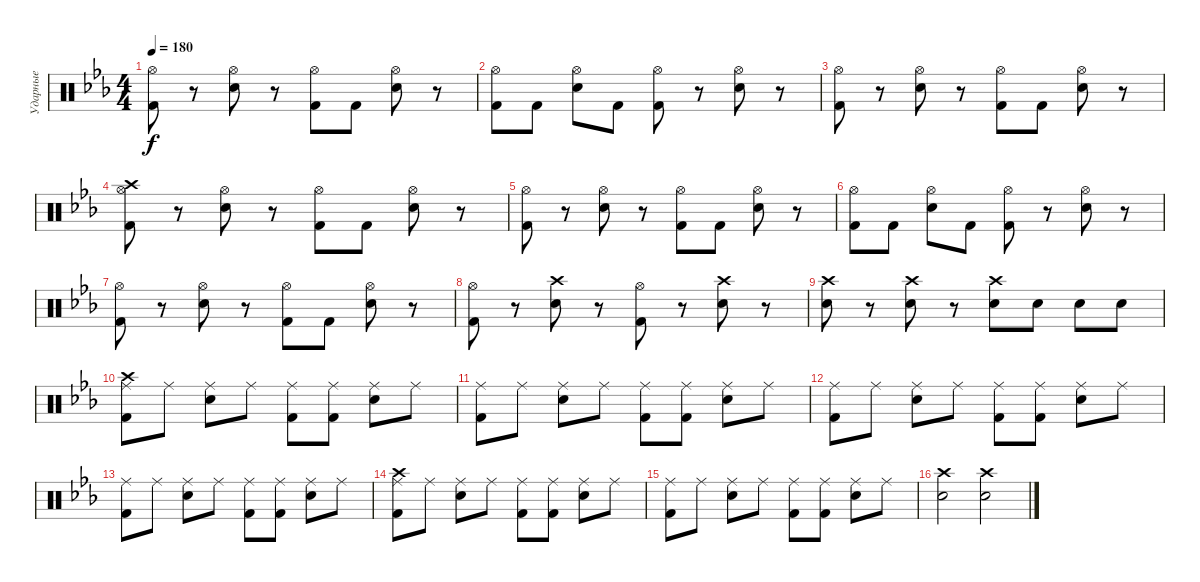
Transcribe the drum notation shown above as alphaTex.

\track ("Ударные" "Ударные") {instrument percussion}
\staff {score}
\articulation defaults
\ts (4 4)
\tempo 180
\clef neutral
\ks eb
("Hi-Hat (open)" "Kick (hit) 2").8{dy f} r.8 ("Hi-Hat (open)" "Electric Snare (hit)").8 r.8 ("Hi-Hat (open)" "Kick (hit) 2").8 "Kick (hit) 2".8 ("Hi-Hat (open)" "Electric Snare (hit)").8 r.8 |
("Hi-Hat (open)" "Kick (hit) 2").8 "Kick (hit) 2".8 ("Hi-Hat (open)" "Electric Snare (hit)").8 "Kick (hit) 2".8 ("Hi-Hat (open)" "Kick (hit) 2").8 r.8 ("Hi-Hat (open)" "Electric Snare (hit)").8 r.8 |
("Hi-Hat (open)" "Kick (hit) 2").8 r.8 ("Hi-Hat (open)" "Electric Snare (hit)").8 r.8 ("Hi-Hat (open)" "Kick (hit) 2").8 "Kick (hit) 2".8 ("Hi-Hat (open)" "Electric Snare (hit)").8 r.8 |
("Hi-Hat (open)" "Kick (hit) 2" "Crash high (hit)").8 r.8 ("Hi-Hat (open)" "Electric Snare (hit)").8 r.8 ("Hi-Hat (open)" "Kick (hit) 2").8 "Kick (hit) 2".8 ("Hi-Hat (open)" "Electric Snare (hit)").8 r.8 |
("Hi-Hat (open)" "Kick (hit) 2").8 r.8 ("Hi-Hat (open)" "Electric Snare (hit)").8 r.8 ("Hi-Hat (open)" "Kick (hit) 2").8 "Kick (hit) 2".8 ("Hi-Hat (open)" "Electric Snare (hit)").8 r.8 |
("Hi-Hat (open)" "Kick (hit) 2").8 "Kick (hit) 2".8 ("Hi-Hat (open)" "Electric Snare (hit)").8 "Kick (hit) 2".8 ("Hi-Hat (open)" "Kick (hit) 2").8 r.8 ("Hi-Hat (open)" "Electric Snare (hit)").8 r.8 |
("Hi-Hat (open)" "Kick (hit) 2").8 r.8 ("Hi-Hat (open)" "Electric Snare (hit)").8 r.8 ("Hi-Hat (open)" "Kick (hit) 2").8 "Kick (hit) 2".8 ("Hi-Hat (open)" "Electric Snare (hit)").8 r.8 |
("Hi-Hat (open)" "Kick (hit) 2").8 r.8 ("Electric Snare (hit)" "Crash high (hit)").8 r.8 ("Hi-Hat (open)" "Kick (hit) 2").8 r.8 ("Electric Snare (hit)" "Crash high (hit)").8 r.8 |
("Electric Snare (hit)" "Crash high (hit)").8 r.8 ("Electric Snare (hit)" "Crash high (hit)").8 r.8 ("Electric Snare (hit)" "Crash high (hit)").8 "Electric Snare (hit)".8 "Electric Snare (hit)".8 "Electric Snare (hit)".8 |
("Ride (middle)" "Kick (hit) 2" "Crash high (hit)").8 "Ride (middle)".8 ("Ride (middle)" "Electric Snare (hit)").8 "Ride (middle)".8 ("Ride (middle)" "Kick (hit) 2").8 ("Ride (middle)" "Kick (hit) 2").8 ("Ride (middle)" "Electric Snare (hit)").8 "Ride (middle)".8 |
("Ride (middle)" "Kick (hit) 2").8 "Ride (middle)".8 ("Ride (middle)" "Electric Snare (hit)").8 "Ride (middle)".8 ("Ride (middle)" "Kick (hit) 2").8 ("Ride (middle)" "Kick (hit) 2").8 ("Ride (middle)" "Electric Snare (hit)").8 "Ride (middle)".8 |
("Ride (middle)" "Kick (hit) 2").8 "Ride (middle)".8 ("Ride (middle)" "Electric Snare (hit)").8 "Ride (middle)".8 ("Ride (middle)" "Kick (hit) 2").8 ("Ride (middle)" "Kick (hit) 2").8 ("Ride (middle)" "Electric Snare (hit)").8 "Ride (middle)".8 |
("Ride (middle)" "Kick (hit) 2").8 "Ride (middle)".8 ("Ride (middle)" "Electric Snare (hit)").8 "Ride (middle)".8 ("Ride (middle)" "Kick (hit) 2").8 ("Ride (middle)" "Kick (hit) 2").8 ("Ride (middle)" "Electric Snare (hit)").8 "Ride (middle)".8 |
("Ride (middle)" "Kick (hit) 2" "Crash high (hit)").8 "Ride (middle)".8 ("Ride (middle)" "Electric Snare (hit)").8 "Ride (middle)".8 ("Ride (middle)" "Kick (hit) 2").8 ("Ride (middle)" "Kick (hit) 2").8 ("Ride (middle)" "Electric Snare (hit)").8 "Ride (middle)".8 |
("Ride (middle)" "Kick (hit) 2").8 "Ride (middle)".8 ("Ride (middle)" "Electric Snare (hit)").8 "Ride (middle)".8 ("Ride (middle)" "Kick (hit) 2").8 ("Ride (middle)" "Kick (hit) 2").8 ("Ride (middle)" "Electric Snare (hit)").8 "Ride (middle)".8 |
("Crash high (hit)" "Electric Snare (hit)").2 ("Crash high (hit)" "Electric Snare (hit)").2
